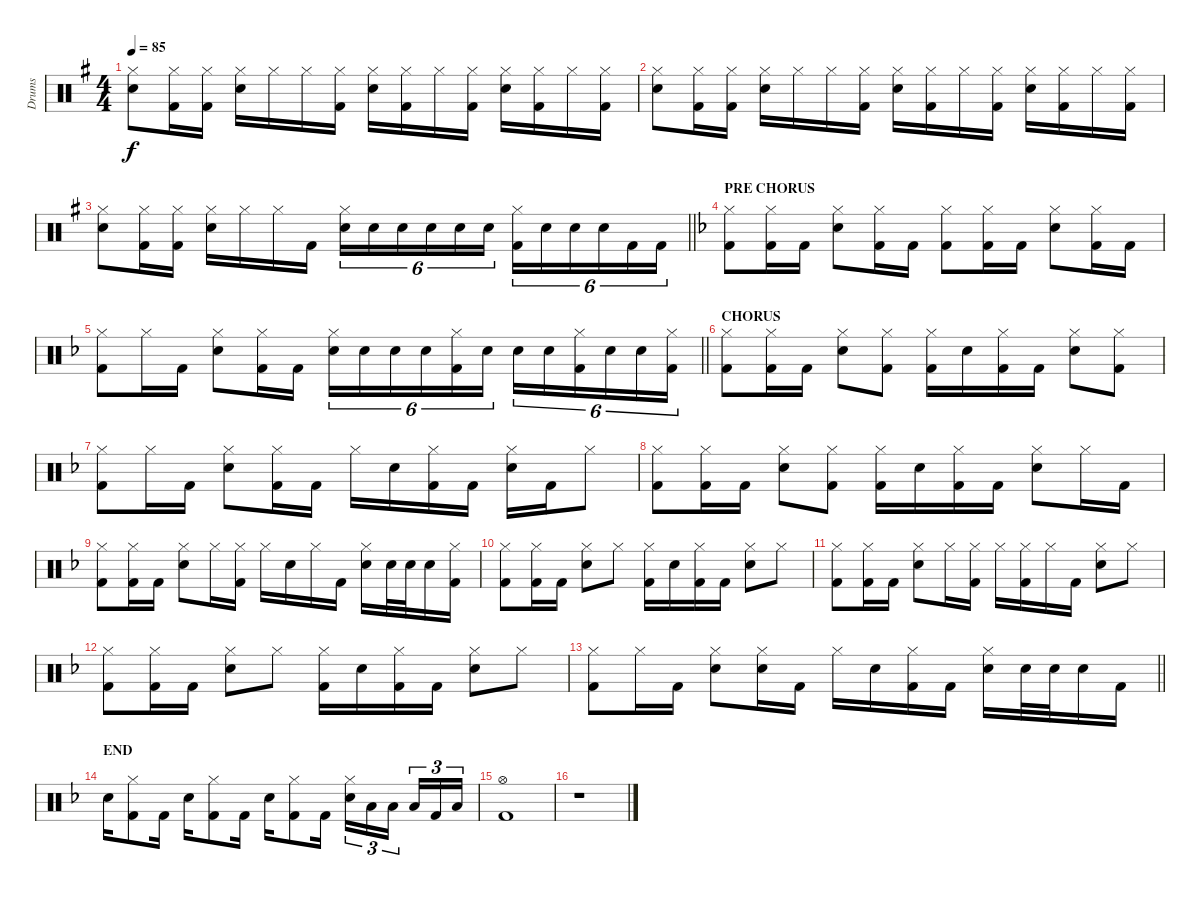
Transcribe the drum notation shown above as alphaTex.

\track ("Drums" "Drums") {instrument percussion}
\staff {score}
\articulation defaults
\ts (4 4)
\tempo 85
\clef neutral
\ks eminor
("Hi-Hat (closed)" "Electric Snare (hit)").8{dy f} ("Hi-Hat (closed)" "Kick (hit) 2").16 ("Hi-Hat (closed)" "Kick (hit) 2").16 ("Hi-Hat (closed)" "Electric Snare (hit)").16 "Hi-Hat (closed)".16 "Hi-Hat (closed)".16 ("Hi-Hat (closed)" "Kick (hit) 2").16 ("Hi-Hat (closed)" "Electric Snare (hit)").16 ("Hi-Hat (closed)" "Kick (hit) 2").16 "Hi-Hat (closed)".16 ("Hi-Hat (closed)" "Kick (hit) 2").16 ("Hi-Hat (closed)" "Electric Snare (hit)").16 ("Hi-Hat (closed)" "Kick (hit) 2").16 "Hi-Hat (closed)".16 ("Hi-Hat (closed)" "Kick (hit) 2").16 |
("Hi-Hat (closed)" "Electric Snare (hit)").8 ("Hi-Hat (closed)" "Kick (hit) 2").16 ("Hi-Hat (closed)" "Kick (hit) 2").16 ("Hi-Hat (closed)" "Electric Snare (hit)").16 "Hi-Hat (closed)".16 "Hi-Hat (closed)".16 ("Hi-Hat (closed)" "Kick (hit) 2").16 ("Hi-Hat (closed)" "Electric Snare (hit)").16 ("Hi-Hat (closed)" "Kick (hit) 2").16 "Hi-Hat (closed)".16 ("Hi-Hat (closed)" "Kick (hit) 2").16 ("Hi-Hat (closed)" "Electric Snare (hit)").16 ("Hi-Hat (closed)" "Kick (hit) 2").16 "Hi-Hat (closed)".16 ("Hi-Hat (closed)" "Kick (hit) 2").16 |
\barLineRight lightlight
("Hi-Hat (closed)" "Electric Snare (hit)").8 ("Hi-Hat (closed)" "Kick (hit) 2").16 ("Hi-Hat (closed)" "Kick (hit) 2").16 ("Hi-Hat (closed)" "Electric Snare (hit)").16 "Hi-Hat (closed)".16 "Hi-Hat (closed)".16 "Kick (hit) 2".16 ("Hi-Hat (closed)" "Electric Snare (hit)").16{tu (6 4)} "Electric Snare (hit)".16{tu (6 4)} "Electric Snare (hit)".16{tu (6 4)} "Electric Snare (hit)".16{tu (6 4)} "Electric Snare (hit)".16{tu (6 4)} "Electric Snare (hit)".16{tu (6 4)} ("Hi-Hat (closed)" "Kick (hit) 2").16{tu (6 4)} "Electric Snare (hit)".16{tu (6 4)} "Electric Snare (hit)".16{tu (6 4)} "Electric Snare (hit)".16{tu (6 4)} "Kick (hit) 2".16{tu (6 4)} "Kick (hit) 2".16{tu (6 4)} |
\section ("" "PRE CHORUS")
\ks dminor
("Hi-Hat (closed)" "Kick (hit) 2").8 ("Hi-Hat (closed)" "Kick (hit) 2").16 "Kick (hit) 2".16 ("Hi-Hat (closed)" "Electric Snare (hit)").8 ("Hi-Hat (closed)" "Kick (hit) 2").16 "Kick (hit) 2".16 ("Hi-Hat (closed)" "Kick (hit) 2").8 ("Hi-Hat (closed)" "Kick (hit) 2").16 "Kick (hit) 2".16 ("Hi-Hat (closed)" "Electric Snare (hit)").8 ("Hi-Hat (closed)" "Kick (hit) 2").16 "Kick (hit) 2".16 |
\barLineRight lightlight
("Hi-Hat (closed)" "Kick (hit) 2").8 "Hi-Hat (closed)".16 "Kick (hit) 2".16 ("Hi-Hat (closed)" "Electric Snare (hit)").8 ("Hi-Hat (closed)" "Kick (hit) 2").16 "Kick (hit) 2".16 ("Hi-Hat (closed)" "Electric Snare (hit)").16{tu (6 4)} "Electric Snare (hit)".16{tu (6 4)} "Electric Snare (hit)".16{tu (6 4)} "Electric Snare (hit)".16{tu (6 4)} ("Hi-Hat (closed)" "Kick (hit) 2").16{tu (6 4)} "Electric Snare (hit)".16{tu (6 4)} "Electric Snare (hit)".16{tu (6 4)} "Electric Snare (hit)".16{tu (6 4)} ("Hi-Hat (closed)" "Kick (hit) 2").16{tu (6 4)} "Electric Snare (hit)".16{tu (6 4)} "Electric Snare (hit)".16{tu (6 4)} ("Hi-Hat (closed)" "Kick (hit) 2").16{tu (6 4)} |
\section ("" "CHORUS")
("Hi-Hat (closed)" "Kick (hit) 2").8 ("Hi-Hat (closed)" "Kick (hit) 2").16 "Kick (hit) 2".16 ("Hi-Hat (closed)" "Electric Snare (hit)").8 ("Hi-Hat (closed)" "Kick (hit) 2").8 ("Hi-Hat (closed)" "Kick (hit) 2").16 "Electric Snare (hit)".16 ("Hi-Hat (closed)" "Kick (hit) 2").16 "Kick (hit) 2".16 ("Hi-Hat (closed)" "Electric Snare (hit)").8 ("Hi-Hat (closed)" "Kick (hit) 2").8 |
("Hi-Hat (closed)" "Kick (hit) 2").8 "Hi-Hat (closed)".16 "Kick (hit) 2".16 ("Hi-Hat (closed)" "Electric Snare (hit)").8 ("Hi-Hat (closed)" "Kick (hit) 2").16 "Kick (hit) 2".16 "Hi-Hat (closed)".16 "Electric Snare (hit)".16 ("Hi-Hat (closed)" "Kick (hit) 2").16 "Kick (hit) 2".16 ("Hi-Hat (closed)" "Electric Snare (hit)").16 "Kick (hit) 2".16 "Hi-Hat (closed)".8 |
("Hi-Hat (closed)" "Kick (hit) 2").8 ("Hi-Hat (closed)" "Kick (hit) 2").16 "Kick (hit) 2".16 ("Hi-Hat (closed)" "Electric Snare (hit)").8 ("Hi-Hat (closed)" "Kick (hit) 2").8 ("Hi-Hat (closed)" "Kick (hit) 2").16 "Electric Snare (hit)".16 ("Hi-Hat (closed)" "Kick (hit) 2").16 "Kick (hit) 2".16 ("Hi-Hat (closed)" "Electric Snare (hit)").8 "Hi-Hat (closed)".16 "Kick (hit) 2".16 |
("Hi-Hat (closed)" "Kick (hit) 2").8 ("Hi-Hat (closed)" "Kick (hit) 2").16 "Kick (hit) 2".16 ("Hi-Hat (closed)" "Electric Snare (hit)").8 "Hi-Hat (closed)".16 ("Hi-Hat (closed)" "Kick (hit) 2").16 "Hi-Hat (closed)".16 "Electric Snare (hit)".16 "Hi-Hat (closed)".16 "Kick (hit) 2".16 ("Hi-Hat (closed)" "Electric Snare (hit)").16 "Electric Snare (hit)".32 "Electric Snare (hit)".32{beam splitsecondary} "Electric Snare (hit)".16 ("Hi-Hat (closed)" "Kick (hit) 2").16 |
("Hi-Hat (closed)" "Kick (hit) 2").8 ("Hi-Hat (closed)" "Kick (hit) 2").16 "Kick (hit) 2".16 ("Hi-Hat (closed)" "Electric Snare (hit)").8 "Hi-Hat (closed)".8 ("Hi-Hat (closed)" "Kick (hit) 2").16 "Electric Snare (hit)".16 ("Hi-Hat (closed)" "Kick (hit) 2").16 "Kick (hit) 2".16 ("Hi-Hat (closed)" "Electric Snare (hit)").8 "Hi-Hat (closed)".8 |
("Hi-Hat (closed)" "Kick (hit) 2").8 ("Hi-Hat (closed)" "Kick (hit) 2").16 "Kick (hit) 2".16 ("Hi-Hat (closed)" "Electric Snare (hit)").8 "Hi-Hat (closed)".16 ("Hi-Hat (closed)" "Kick (hit) 2").16 "Hi-Hat (closed)".16 ("Hi-Hat (closed)" "Kick (hit) 2").16 "Hi-Hat (closed)".16 "Kick (hit) 2".16 ("Hi-Hat (closed)" "Electric Snare (hit)").8 "Hi-Hat (closed)".8 |
("Hi-Hat (closed)" "Kick (hit) 2").8 ("Hi-Hat (closed)" "Kick (hit) 2").16 "Kick (hit) 2".16 ("Hi-Hat (closed)" "Electric Snare (hit)").8 "Hi-Hat (closed)".8 ("Hi-Hat (closed)" "Kick (hit) 2").16 "Electric Snare (hit)".16 ("Hi-Hat (closed)" "Kick (hit) 2").16 "Kick (hit) 2".16 ("Hi-Hat (closed)" "Electric Snare (hit)").8 "Hi-Hat (closed)".8 |
\barLineRight lightlight
("Hi-Hat (closed)" "Kick (hit) 2").8 "Hi-Hat (closed)".16 "Kick (hit) 2".16 ("Hi-Hat (closed)" "Electric Snare (hit)").8 ("Hi-Hat (closed)" "Electric Snare (hit)").16 "Kick (hit) 2".16 "Hi-Hat (closed)".16 "Electric Snare (hit)".16 ("Hi-Hat (closed)" "Kick (hit) 2").16 "Kick (hit) 2".16 ("Hi-Hat (closed)" "Electric Snare (hit)").16 "Electric Snare (hit)".32 "Electric Snare (hit)".32{beam splitsecondary} "Electric Snare (hit)".16 "Kick (hit) 2".16 |
\section ("" "END")
"Electric Snare (hit)".16 ("Hi-Hat (closed)" "Kick (hit) 2").8 "Kick (hit) 2".16 "Electric Snare (hit)".16 ("Hi-Hat (closed)" "Kick (hit) 2").8 "Kick (hit) 2".16 "Electric Snare (hit)".16 ("Hi-Hat (closed)" "Kick (hit) 2").8 "Kick (hit) 2".16 ("Hi-Hat (closed)" "Electric Snare (hit)").16{tu (3 2)} "Low Tom (hit)".16{tu (3 2)} "Low Tom (hit)".16{tu (3 2) beam splitsecondary} "Low Tom (hit)".16{tu (3 2)} "Kick (hit) 2".16{tu (3 2)} "Low Tom (hit)".16{tu (3 2)} |
("Hi-Hat (open)" "Kick (hit) 2").1 |
r.1
